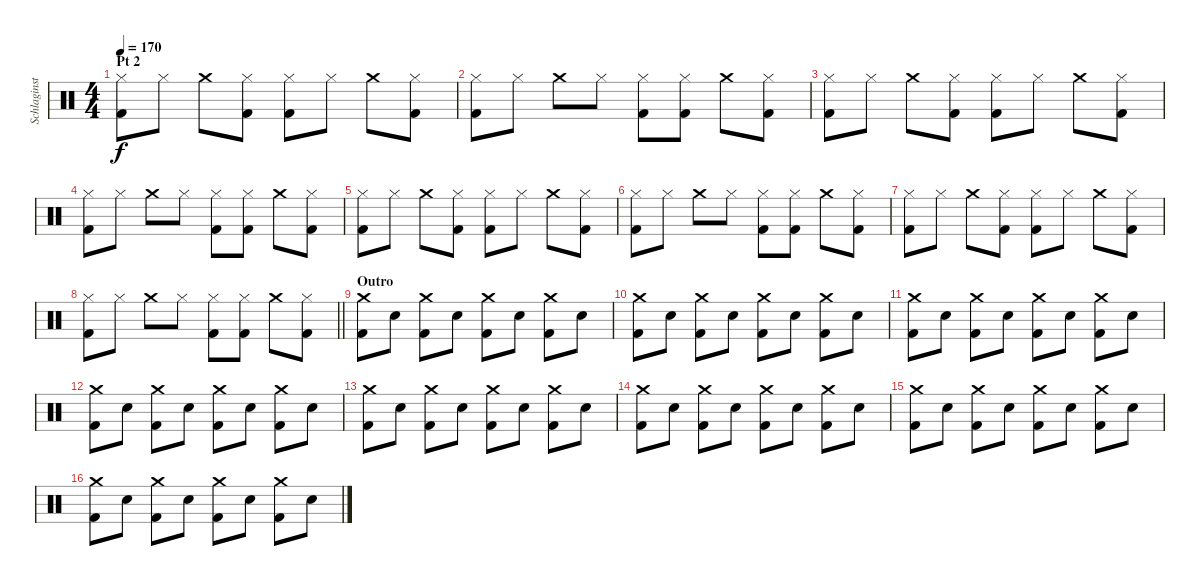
\track ("Schlaginstrumente - Auswahl" "Schlaginst") {instrument percussion}
\staff {score}
\articulation defaults
\ts (4 4)
\section ("" "Pt 2")
\tempo 170
\clef neutral
\ks c
("Hi-Hat (closed)" "Kick (hit) 2").8{dy f} "Hi-Hat (closed)".8 "Crash medium (hit)".8 ("Hi-Hat (closed)" "Kick (hit) 2").8 ("Hi-Hat (closed)" "Kick (hit) 2").8 "Hi-Hat (closed)".8 "Crash medium (hit)".8 ("Hi-Hat (closed)" "Kick (hit) 2").8 |
("Hi-Hat (closed)" "Kick (hit) 2").8 "Hi-Hat (closed)".8 "Crash medium (hit)".8 "Hi-Hat (closed)".8 ("Hi-Hat (closed)" "Kick (hit) 2").8 ("Hi-Hat (closed)" "Kick (hit) 2").8 "Crash medium (hit)".8 ("Hi-Hat (closed)" "Kick (hit) 2").8 |
("Hi-Hat (closed)" "Kick (hit) 2").8 "Hi-Hat (closed)".8 "Crash medium (hit)".8 ("Hi-Hat (closed)" "Kick (hit) 2").8 ("Hi-Hat (closed)" "Kick (hit) 2").8 "Hi-Hat (closed)".8 "Crash medium (hit)".8 ("Hi-Hat (closed)" "Kick (hit) 2").8 |
("Hi-Hat (closed)" "Kick (hit) 2").8 "Hi-Hat (closed)".8 "Crash medium (hit)".8 "Hi-Hat (closed)".8 ("Hi-Hat (closed)" "Kick (hit) 2").8 ("Hi-Hat (closed)" "Kick (hit) 2").8 "Crash medium (hit)".8 ("Hi-Hat (closed)" "Kick (hit) 2").8 |
("Hi-Hat (closed)" "Kick (hit) 2").8 "Hi-Hat (closed)".8 "Crash medium (hit)".8 ("Hi-Hat (closed)" "Kick (hit) 2").8 ("Hi-Hat (closed)" "Kick (hit) 2").8 "Hi-Hat (closed)".8 "Crash medium (hit)".8 ("Hi-Hat (closed)" "Kick (hit) 2").8 |
("Hi-Hat (closed)" "Kick (hit) 2").8 "Hi-Hat (closed)".8 "Crash medium (hit)".8 "Hi-Hat (closed)".8 ("Hi-Hat (closed)" "Kick (hit) 2").8 ("Hi-Hat (closed)" "Kick (hit) 2").8 "Crash medium (hit)".8 ("Hi-Hat (closed)" "Kick (hit) 2").8 |
("Hi-Hat (closed)" "Kick (hit) 2").8 "Hi-Hat (closed)".8 "Crash medium (hit)".8 ("Hi-Hat (closed)" "Kick (hit) 2").8 ("Hi-Hat (closed)" "Kick (hit) 2").8 "Hi-Hat (closed)".8 "Crash medium (hit)".8 ("Hi-Hat (closed)" "Kick (hit) 2").8 |
\barLineRight lightlight
("Hi-Hat (closed)" "Kick (hit) 2").8 "Hi-Hat (closed)".8 "Crash medium (hit)".8 "Hi-Hat (closed)".8 ("Hi-Hat (closed)" "Kick (hit) 2").8 ("Hi-Hat (closed)" "Kick (hit) 2").8 "Crash medium (hit)".8 ("Hi-Hat (closed)" "Kick (hit) 2").8 |
\section ("" "Outro")
("Crash medium (hit)" "Kick (hit) 2").8 "Snare (hit) 2".8 ("Crash medium (hit)" "Kick (hit) 2").8 "Snare (hit) 2".8 ("Crash medium (hit)" "Kick (hit) 2").8 "Snare (hit) 2".8 ("Crash medium (hit)" "Kick (hit) 2").8 "Snare (hit) 2".8 |
("Crash medium (hit)" "Kick (hit) 2").8 "Snare (hit) 2".8 ("Crash medium (hit)" "Kick (hit) 2").8 "Snare (hit) 2".8 ("Crash medium (hit)" "Kick (hit) 2").8 "Snare (hit) 2".8 ("Crash medium (hit)" "Kick (hit) 2").8 "Snare (hit) 2".8 |
("Crash medium (hit)" "Kick (hit) 2").8 "Snare (hit) 2".8 ("Crash medium (hit)" "Kick (hit) 2").8 "Snare (hit) 2".8 ("Crash medium (hit)" "Kick (hit) 2").8 "Snare (hit) 2".8 ("Crash medium (hit)" "Kick (hit) 2").8 "Snare (hit) 2".8 |
("Crash medium (hit)" "Kick (hit) 2").8 "Snare (hit) 2".8 ("Crash medium (hit)" "Kick (hit) 2").8 "Snare (hit) 2".8 ("Crash medium (hit)" "Kick (hit) 2").8 "Snare (hit) 2".8 ("Crash medium (hit)" "Kick (hit) 2").8 "Snare (hit) 2".8 |
("Crash medium (hit)" "Kick (hit) 2").8 "Snare (hit) 2".8 ("Crash medium (hit)" "Kick (hit) 2").8 "Snare (hit) 2".8 ("Crash medium (hit)" "Kick (hit) 2").8 "Snare (hit) 2".8 ("Crash medium (hit)" "Kick (hit) 2").8 "Snare (hit) 2".8 |
("Crash medium (hit)" "Kick (hit) 2").8 "Snare (hit) 2".8 ("Crash medium (hit)" "Kick (hit) 2").8 "Snare (hit) 2".8 ("Crash medium (hit)" "Kick (hit) 2").8 "Snare (hit) 2".8 ("Crash medium (hit)" "Kick (hit) 2").8 "Snare (hit) 2".8 |
("Crash medium (hit)" "Kick (hit) 2").8 "Snare (hit) 2".8 ("Crash medium (hit)" "Kick (hit) 2").8 "Snare (hit) 2".8 ("Crash medium (hit)" "Kick (hit) 2").8 "Snare (hit) 2".8 ("Crash medium (hit)" "Kick (hit) 2").8 "Snare (hit) 2".8 |
("Crash medium (hit)" "Kick (hit) 2").8 "Snare (hit) 2".8 ("Crash medium (hit)" "Kick (hit) 2").8 "Snare (hit) 2".8 ("Crash medium (hit)" "Kick (hit) 2").8 "Snare (hit) 2".8 ("Crash medium (hit)" "Kick (hit) 2").8 "Snare (hit) 2".8
